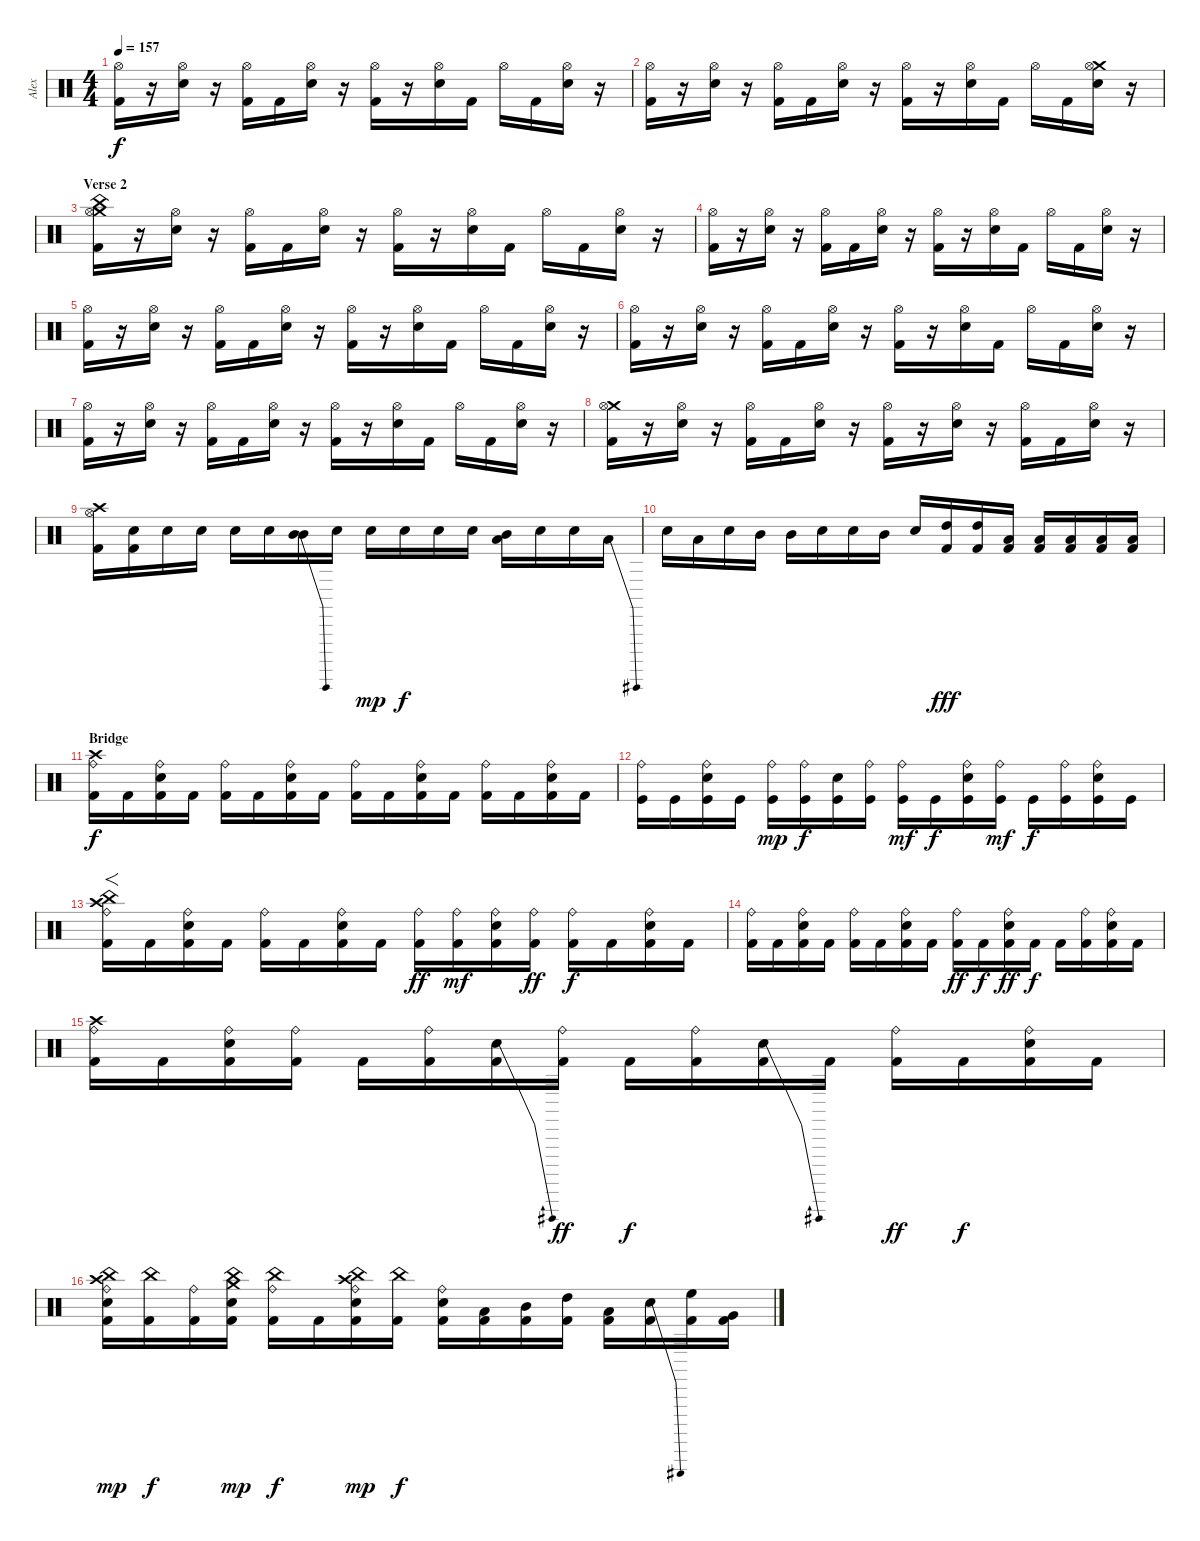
\track ("Alex" "Alex") {instrument percussion}
\staff {score}
\articulation defaults
\ts (4 4)
\tempo 157
\clef neutral
\ks c
("Hi-Hat (open)" "Kick (hit) 2").16{dy f} r.16 ("Hi-Hat (open)" "Electric Snare (hit)").16 r.16 ("Hi-Hat (open)" "Kick (hit) 2").16 "Kick (hit) 2".16 ("Hi-Hat (open)" "Electric Snare (hit)").16 r.16 ("Hi-Hat (open)" "Kick (hit) 2").16 r.16 ("Hi-Hat (open)" "Electric Snare (hit)").16 "Kick (hit) 2".16 "Hi-Hat (open)".16 "Kick (hit) 2".16 ("Hi-Hat (open)" "Electric Snare (hit)").16 r.16 |
("Hi-Hat (open)" "Kick (hit) 2").16 r.16 ("Hi-Hat (open)" "Electric Snare (hit)").16 r.16 ("Hi-Hat (open)" "Kick (hit) 2").16 "Kick (hit) 2".16 ("Hi-Hat (open)" "Electric Snare (hit)").16 r.16 ("Hi-Hat (open)" "Kick (hit) 2").16 r.16 ("Hi-Hat (open)" "Electric Snare (hit)").16 "Kick (hit) 2".16 "Hi-Hat (open)".16 "Kick (hit) 2".16 ("Crash medium (hit)" "Hi-Hat (open)" "Electric Snare (hit)").16 r.16 |
\section ("" "Verse 2")
("Crash medium (hit)" "China (hit)" "Hi-Hat (open)" "Kick (hit) 2").16 r.16 ("Hi-Hat (open)" "Electric Snare (hit)").16 r.16 ("Hi-Hat (open)" "Kick (hit) 2").16 "Kick (hit) 2".16 ("Hi-Hat (open)" "Electric Snare (hit)").16 r.16 ("Hi-Hat (open)" "Kick (hit) 2").16 r.16 ("Hi-Hat (open)" "Electric Snare (hit)").16 "Kick (hit) 2".16 "Hi-Hat (open)".16 "Kick (hit) 2".16 ("Hi-Hat (open)" "Electric Snare (hit)").16 r.16 |
("Hi-Hat (open)" "Kick (hit) 2").16 r.16 ("Hi-Hat (open)" "Electric Snare (hit)").16 r.16 ("Hi-Hat (open)" "Kick (hit) 2").16 "Kick (hit) 2".16 ("Hi-Hat (open)" "Electric Snare (hit)").16 r.16 ("Hi-Hat (open)" "Kick (hit) 2").16 r.16 ("Hi-Hat (open)" "Electric Snare (hit)").16 "Kick (hit) 2".16 "Hi-Hat (open)".16 "Kick (hit) 2".16 ("Hi-Hat (open)" "Electric Snare (hit)").16 r.16 |
("Hi-Hat (open)" "Kick (hit) 2").16 r.16 ("Hi-Hat (open)" "Electric Snare (hit)").16 r.16 ("Hi-Hat (open)" "Kick (hit) 2").16 "Kick (hit) 2".16 ("Hi-Hat (open)" "Electric Snare (hit)").16 r.16 ("Hi-Hat (open)" "Kick (hit) 2").16 r.16 ("Hi-Hat (open)" "Electric Snare (hit)").16 "Kick (hit) 2".16 "Hi-Hat (open)".16 "Kick (hit) 2".16 ("Hi-Hat (open)" "Electric Snare (hit)").16 r.16 |
("Hi-Hat (open)" "Kick (hit) 2").16 r.16 ("Hi-Hat (open)" "Electric Snare (hit)").16 r.16 ("Hi-Hat (open)" "Kick (hit) 2").16 "Kick (hit) 2".16 ("Hi-Hat (open)" "Electric Snare (hit)").16 r.16 ("Hi-Hat (open)" "Kick (hit) 2").16 r.16 ("Hi-Hat (open)" "Electric Snare (hit)").16 "Kick (hit) 2".16 "Hi-Hat (open)".16 "Kick (hit) 2".16 ("Hi-Hat (open)" "Electric Snare (hit)").16 r.16 |
("Hi-Hat (open)" "Kick (hit) 2").16 r.16 ("Hi-Hat (open)" "Electric Snare (hit)").16 r.16 ("Hi-Hat (open)" "Kick (hit) 2").16 "Kick (hit) 2".16 ("Hi-Hat (open)" "Electric Snare (hit)").16 r.16 ("Hi-Hat (open)" "Kick (hit) 2").16 r.16 ("Hi-Hat (open)" "Electric Snare (hit)").16 "Kick (hit) 2".16 "Hi-Hat (open)".16 "Kick (hit) 2".16 ("Hi-Hat (open)" "Electric Snare (hit)").16 r.16 |
("Crash medium (hit)" "Hi-Hat (open)" "Kick (hit) 2").16 r.16 ("Hi-Hat (open)" "Electric Snare (hit)").16 r.16 ("Hi-Hat (open)" "Kick (hit) 2").16 "Kick (hit) 2".16 ("Hi-Hat (open)" "Electric Snare (hit)").16 r.16 ("Hi-Hat (open)" "Kick (hit) 2").16 r.16 ("Hi-Hat (open)" "Electric Snare (hit)").16 r.16 ("Hi-Hat (open)" "Kick (hit) 2").16 "Kick (hit) 2".16 ("Hi-Hat (open)" "Electric Snare (hit)").16 r.16 |
("Crash high (hit)" "Hi-Hat (open)" "Kick (hit) 2").16 ("Electric Snare (hit)" "Kick (hit) 2").16 "Electric Snare (hit)".16 "Electric Snare (hit)".16 "Electric Snare (hit)".16 "Electric Snare (hit)".16 ("Mid Tom (hit)" "Mid Tom (hit)"{be (bend 0 0 60 12)}).16 "Electric Snare (hit)".16 "Electric Snare (hit)".16{dy mp} "Electric Snare (hit)".16{dy f} "Electric Snare (hit)".16 "Electric Snare (hit)".16 ("Low Tom (hit)" "Mid Tom (hit)"{be (custom 0 7 20 7 40 0 60 0)}).16 "Electric Snare (hit)".16 "Electric Snare (hit)".16 "Low Tom (hit)"{be (bend 0 0 60 12)}.16 |
"Electric Snare (hit)".16 "Low Tom (hit)".16 "Electric Snare (hit)".16 "Mid Tom (hit)".16 "Mid Tom (hit)".16 "Electric Snare (hit)".16 "Electric Snare (hit)".16 "Mid Tom (hit)".16 "Electric Snare (hit)".16 ("High Tom (hit)" "Kick (hit) 2").16{dy fff} ("High Tom (hit)" "Kick (hit) 2").16 ("Low Tom (hit)" "Kick (hit) 2").16 ("Low Tom (hit)" "Kick (hit) 2").16 ("Low Tom (hit)" "Kick (hit) 2").16 ("Low Tom (hit)" "Kick (hit) 2").16 ("Low Tom (hit)" "Kick (hit) 2").16 |
\section ("" "Bridge")
("Crash high (hit)" "Ride (bell)" "Kick (hit) 2").16{dy f} "Kick (hit) 2".16 ("Ride (bell)" "Electric Snare (hit)" "Kick (hit) 2").16 "Kick (hit) 2".16 ("Ride (bell)" "Kick (hit) 2").16 "Kick (hit) 2".16 ("Ride (bell)" "Electric Snare (hit)" "Kick (hit) 2").16 "Kick (hit) 2".16 ("Ride (bell)" "Kick (hit) 2").16 "Kick (hit) 2".16 ("Ride (bell)" "Electric Snare (hit)" "Kick (hit) 2").16 "Kick (hit) 2".16 ("Ride (bell)" "Kick (hit) 2").16 "Kick (hit) 2".16 ("Ride (bell)" "Electric Snare (hit)" "Kick (hit) 2").16 "Kick (hit) 2".16 |
("Ride (bell)" "Kick (hit)").16 "Kick (hit)".16 ("Ride (bell)" "Electric Snare (hit)" "Kick (hit)").16 "Kick (hit)".16 ("Ride (bell)" "Kick (hit)").16{dy mp} ("Ride (bell)" "Kick (hit)").16{dy f} ("Electric Snare (hit)" "Kick (hit)").16 ("Ride (bell)" "Kick (hit)").16 ("Ride (bell)" "Kick (hit)").16{dy mf} "Kick (hit)".16{dy f} ("Ride (bell)" "Electric Snare (hit)" "Kick (hit)").16 ("Ride (bell)" "Kick (hit)").16{dy mf} "Kick (hit)".16{dy f} ("Ride (bell)" "Kick (hit)").16 ("Ride (bell)" "Electric Snare (hit)" "Kick (hit)").16 "Kick (hit)".16 |
("Crash high (hit)" "China (hit)" "Ride (bell)" "Kick (hit) 2").16{f} "Kick (hit) 2".16 ("Ride (bell)" "Electric Snare (hit)" "Kick (hit) 2").16 "Kick (hit) 2".16 ("Ride (bell)" "Kick (hit) 2").16 "Kick (hit) 2".16 ("Ride (bell)" "Electric Snare (hit)" "Kick (hit) 2").16 "Kick (hit) 2".16 ("Ride (bell)" "Kick (hit) 2").16{dy ff} ("Ride (bell)" "Kick (hit) 2").16{dy mf} ("Ride (bell)" "Electric Snare (hit)" "Kick (hit) 2").16 ("Ride (bell)" "Kick (hit) 2").16{dy ff} ("Ride (bell)" "Kick (hit) 2").16{dy f} "Kick (hit) 2".16 ("Ride (bell)" "Electric Snare (hit)" "Kick (hit) 2").16 "Kick (hit) 2".16 |
("Ride (bell)" "Kick (hit) 2").16 "Kick (hit) 2".16 ("Ride (bell)" "Electric Snare (hit)" "Kick (hit) 2").16 "Kick (hit) 2".16 ("Ride (bell)" "Kick (hit) 2").16 "Kick (hit) 2".16 ("Ride (bell)" "Electric Snare (hit)" "Kick (hit) 2").16 "Kick (hit) 2".16 ("Ride (bell)" "Kick (hit) 2").16{dy ff} "Kick (hit) 2".16{dy f} ("Ride (bell)" "Electric Snare (hit)" "Kick (hit) 2").16{dy ff} "Kick (hit) 2".16{dy f} "Kick (hit) 2".16 ("Ride (bell)" "Kick (hit) 2").16 ("Ride (bell)" "Electric Snare (hit)" "Kick (hit) 2").16 "Kick (hit) 2".16 |
("Crash high (hit)" "Ride (bell)" "Kick (hit) 2").16 "Kick (hit) 2".16 ("Ride (bell)" "Electric Snare (hit)" "Kick (hit) 2").16 ("Ride (bell)" "Kick (hit) 2").16 "Kick (hit) 2".16 ("Ride (bell)" "Kick (hit) 2").16 ("Electric Snare (hit)"{be (bend 0 0 60 9)} "Kick (hit) 2").16 ("Ride (bell)" "Kick (hit) 2").16{dy ff} "Kick (hit) 2".16{dy f} ("Ride (bell)" "Kick (hit) 2").16 ("Electric Snare (hit)"{be (bend 0 0 60 9)} "Kick (hit) 2").16 "Kick (hit) 2".16 ("Ride (bell)" "Kick (hit) 2").16{dy ff} "Kick (hit) 2".16{dy f} ("Ride (bell)" "Electric Snare (hit)" "Kick (hit) 2").16 "Kick (hit) 2".16 |
("Crash high (hit)" "China (hit)" "Ride (bell)" "Electric Snare (hit)" "Kick (hit) 2").16{dy mp} ("China (hit)" "Kick (hit) 2").16{dy f} ("Ride (bell)" "Kick (hit) 2").16 ("Crash medium (hit)" "China (hit)" "Electric Snare (hit)" "Kick (hit) 2").16{dy mp} ("China (hit)" "Ride (bell)" "Kick (hit) 2").16{dy f} "Kick (hit) 2".16 ("Crash high (hit)" "China (hit)" "Ride (bell)" "Electric Snare (hit)" "Kick (hit) 2").16{dy mp} ("China (hit)" "Kick (hit) 2").16{dy f} ("Ride (bell)" "Electric Snare (hit)" "Kick (hit) 2").16 ("Low Tom (hit)" "Kick (hit) 2").16 ("Mid Tom (hit)" "Kick (hit) 2").16 ("High Tom (hit)" "Kick (hit) 2").16 ("Low Tom (hit)" "Kick (hit) 2").16 ("Electric Snare (hit)"{be (bend 0 0 60 12)} "Kick (hit) 2").16 ("High Floor Tom (hit)" "Kick (hit) 2").16 ("Very Low Tom (hit)" "Kick (hit) 2").16
